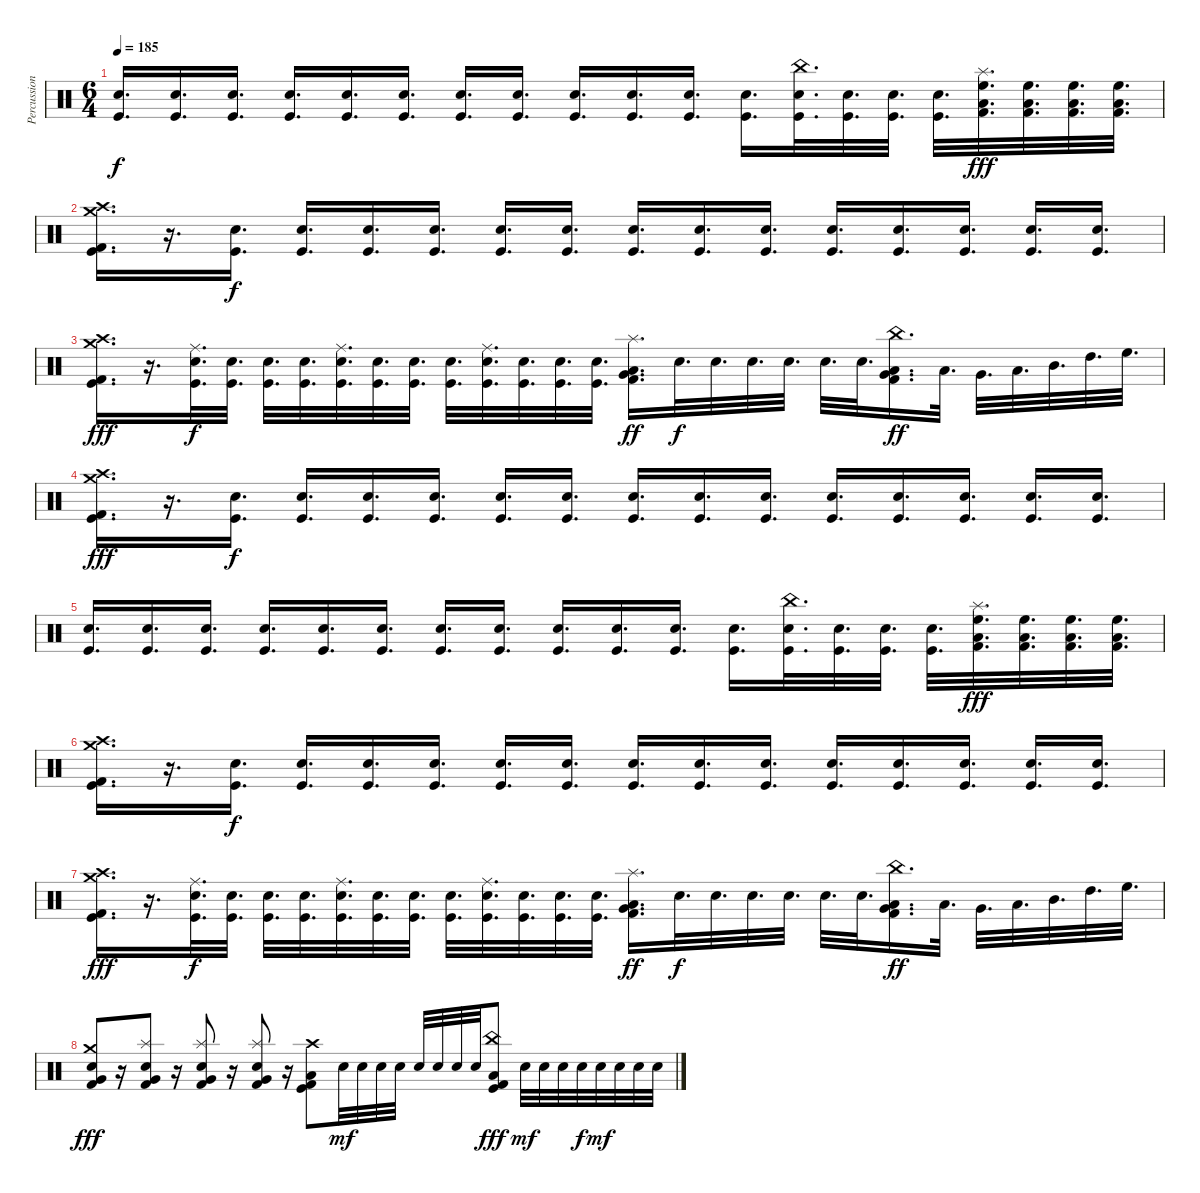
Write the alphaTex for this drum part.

\track ("Percussions" "Percussion") {instrument percussion}
\staff {score}
\articulation defaults
\ts (6 4)
\tempo 185
\clef neutral
\ks c
("Electric Snare (hit)" "Kick (hit)").16{d dy f} ("Electric Snare (hit)" "Kick (hit)").16{d} ("Electric Snare (hit)" "Kick (hit)").16{d} ("Electric Snare (hit)" "Kick (hit)").16{d} ("Electric Snare (hit)" "Kick (hit)").16{d} ("Electric Snare (hit)" "Kick (hit)").16{d} ("Electric Snare (hit)" "Kick (hit)").16{d} ("Electric Snare (hit)" "Kick (hit)").16{d} ("Electric Snare (hit)" "Kick (hit)").16{d} ("Electric Snare (hit)" "Kick (hit)").16{d} ("Electric Snare (hit)" "Kick (hit)").16{d} ("Electric Snare (hit)" "Kick (hit)").16{d} ("China (hit)" "Electric Snare (hit)" "Kick (hit)").32{d} ("Electric Snare (hit)" "Kick (hit)").32{d} ("Electric Snare (hit)" "Kick (hit)").32{d} ("Electric Snare (hit)" "Kick (hit)").32{d} ("Splash (hit)" "Low Floor Tom (hit)" "High Floor Tom (hit)" "Kick (hit) 2").32{d dy fff} ("Low Floor Tom (hit)" "High Floor Tom (hit)" "Kick (hit) 2").32{d} ("Low Floor Tom (hit)" "High Floor Tom (hit)" "Kick (hit) 2").32{d} ("Low Floor Tom (hit)" "High Floor Tom (hit)" "Kick (hit) 2").32{d} |
("Crash high (hit)" "Crash medium (hit)" "Kick (hit)" "Kick (hit) 2").16{d} r.16{d} ("Electric Snare (hit)" "Kick (hit)").16{d dy f} ("Electric Snare (hit)" "Kick (hit)").16{d} ("Electric Snare (hit)" "Kick (hit)").16{d} ("Electric Snare (hit)" "Kick (hit)").16{d} ("Electric Snare (hit)" "Kick (hit)").16{d} ("Electric Snare (hit)" "Kick (hit)").16{d} ("Electric Snare (hit)" "Kick (hit)").16{d} ("Electric Snare (hit)" "Kick (hit)").16{d} ("Electric Snare (hit)" "Kick (hit)").16{d} ("Electric Snare (hit)" "Kick (hit)").16{d} ("Electric Snare (hit)" "Kick (hit)").16{d} ("Electric Snare (hit)" "Kick (hit)").16{d} ("Electric Snare (hit)" "Kick (hit)").16{d} ("Electric Snare (hit)" "Kick (hit)").16{d} |
("Crash high (hit)" "Crash medium (hit)" "Kick (hit)" "Kick (hit) 2").16{d dy fff} r.16{d} ("Ride (middle)" "Electric Snare (hit)" "Kick (hit)").32{d dy f} ("Electric Snare (hit)" "Kick (hit)").32{d} ("Electric Snare (hit)" "Kick (hit)").32{d} ("Electric Snare (hit)" "Kick (hit)").32{d} ("Ride (middle)" "Electric Snare (hit)" "Kick (hit)").32{d} ("Electric Snare (hit)" "Kick (hit)").32{d} ("Electric Snare (hit)" "Kick (hit)").32{d} ("Electric Snare (hit)" "Kick (hit)").32{d} ("Ride (middle)" "Electric Snare (hit)" "Kick (hit)").32{d} ("Electric Snare (hit)" "Kick (hit)").32{d} ("Electric Snare (hit)" "Kick (hit)").32{d} ("Electric Snare (hit)" "Kick (hit)").32{d} ("Splash (hit)" "Low Floor Tom (hit)" "Very Low Tom (hit)" "Kick (hit) 2").16{d dy ff} "Electric Snare (hit)".32{d dy f} "Electric Snare (hit)".32{d} "Electric Snare (hit)".32{d} "Electric Snare (hit)".32{d} "Electric Snare (hit)".32{d} "Electric Snare (hit)".32{d} ("China (hit)" "Low Floor Tom (hit)" "Very Low Tom (hit)" "Kick (hit) 2").16{d dy ff} "Low Floor Tom (hit)".32{d} "Very Low Tom (hit)".32{d} "Low Tom (hit)".32{d} "Mid Tom (hit)".32{d} "High Tom (hit)".32{d} "High Floor Tom (hit)".32{d} |
("Crash high (hit)" "Crash medium (hit)" "Kick (hit)" "Kick (hit) 2").16{d dy fff} r.16{d} ("Electric Snare (hit)" "Kick (hit)").16{d dy f} ("Electric Snare (hit)" "Kick (hit)").16{d} ("Electric Snare (hit)" "Kick (hit)").16{d} ("Electric Snare (hit)" "Kick (hit)").16{d} ("Electric Snare (hit)" "Kick (hit)").16{d} ("Electric Snare (hit)" "Kick (hit)").16{d} ("Electric Snare (hit)" "Kick (hit)").16{d} ("Electric Snare (hit)" "Kick (hit)").16{d} ("Electric Snare (hit)" "Kick (hit)").16{d} ("Electric Snare (hit)" "Kick (hit)").16{d} ("Electric Snare (hit)" "Kick (hit)").16{d} ("Electric Snare (hit)" "Kick (hit)").16{d} ("Electric Snare (hit)" "Kick (hit)").16{d} ("Electric Snare (hit)" "Kick (hit)").16{d} |
("Electric Snare (hit)" "Kick (hit)").16{d} ("Electric Snare (hit)" "Kick (hit)").16{d} ("Electric Snare (hit)" "Kick (hit)").16{d} ("Electric Snare (hit)" "Kick (hit)").16{d} ("Electric Snare (hit)" "Kick (hit)").16{d} ("Electric Snare (hit)" "Kick (hit)").16{d} ("Electric Snare (hit)" "Kick (hit)").16{d} ("Electric Snare (hit)" "Kick (hit)").16{d} ("Electric Snare (hit)" "Kick (hit)").16{d} ("Electric Snare (hit)" "Kick (hit)").16{d} ("Electric Snare (hit)" "Kick (hit)").16{d} ("Electric Snare (hit)" "Kick (hit)").16{d} ("China (hit)" "Electric Snare (hit)" "Kick (hit)").32{d} ("Electric Snare (hit)" "Kick (hit)").32{d} ("Electric Snare (hit)" "Kick (hit)").32{d} ("Electric Snare (hit)" "Kick (hit)").32{d} ("Splash (hit)" "Low Floor Tom (hit)" "High Floor Tom (hit)" "Kick (hit) 2").32{d dy fff} ("Low Floor Tom (hit)" "High Floor Tom (hit)" "Kick (hit) 2").32{d} ("Low Floor Tom (hit)" "High Floor Tom (hit)" "Kick (hit) 2").32{d} ("Low Floor Tom (hit)" "High Floor Tom (hit)" "Kick (hit) 2").32{d} |
("Crash high (hit)" "Crash medium (hit)" "Kick (hit)" "Kick (hit) 2").16{d} r.16{d} ("Electric Snare (hit)" "Kick (hit)").16{d dy f} ("Electric Snare (hit)" "Kick (hit)").16{d} ("Electric Snare (hit)" "Kick (hit)").16{d} ("Electric Snare (hit)" "Kick (hit)").16{d} ("Electric Snare (hit)" "Kick (hit)").16{d} ("Electric Snare (hit)" "Kick (hit)").16{d} ("Electric Snare (hit)" "Kick (hit)").16{d} ("Electric Snare (hit)" "Kick (hit)").16{d} ("Electric Snare (hit)" "Kick (hit)").16{d} ("Electric Snare (hit)" "Kick (hit)").16{d} ("Electric Snare (hit)" "Kick (hit)").16{d} ("Electric Snare (hit)" "Kick (hit)").16{d} ("Electric Snare (hit)" "Kick (hit)").16{d} ("Electric Snare (hit)" "Kick (hit)").16{d} |
("Crash high (hit)" "Crash medium (hit)" "Kick (hit)" "Kick (hit) 2").16{d dy fff} r.16{d} ("Ride (middle)" "Electric Snare (hit)" "Kick (hit)").32{d dy f} ("Electric Snare (hit)" "Kick (hit)").32{d} ("Electric Snare (hit)" "Kick (hit)").32{d} ("Electric Snare (hit)" "Kick (hit)").32{d} ("Ride (middle)" "Electric Snare (hit)" "Kick (hit)").32{d} ("Electric Snare (hit)" "Kick (hit)").32{d} ("Electric Snare (hit)" "Kick (hit)").32{d} ("Electric Snare (hit)" "Kick (hit)").32{d} ("Ride (middle)" "Electric Snare (hit)" "Kick (hit)").32{d} ("Electric Snare (hit)" "Kick (hit)").32{d} ("Electric Snare (hit)" "Kick (hit)").32{d} ("Electric Snare (hit)" "Kick (hit)").32{d} ("Splash (hit)" "Low Floor Tom (hit)" "Very Low Tom (hit)" "Kick (hit) 2").16{d dy ff} "Electric Snare (hit)".32{d dy f} "Electric Snare (hit)".32{d} "Electric Snare (hit)".32{d} "Electric Snare (hit)".32{d} "Electric Snare (hit)".32{d} "Electric Snare (hit)".32{d} ("China (hit)" "Low Floor Tom (hit)" "Very Low Tom (hit)" "Kick (hit) 2").16{d dy ff} "Low Floor Tom (hit)".32{d} "Very Low Tom (hit)".32{d} "Low Tom (hit)".32{d} "Mid Tom (hit)".32{d} "High Tom (hit)".32{d} "High Floor Tom (hit)".32{d} |
("Crash medium (hit)" "Electric Snare (hit)" "Very Low Tom (hit)" "Kick (hit) 2").8{dy fff} r.16 ("Splash (hit)" "Electric Snare (hit)" "Very Low Tom (hit)" "Kick (hit) 2").8 r.16 ("Splash (hit)" "Electric Snare (hit)" "Very Low Tom (hit)" "Kick (hit) 2").8 r.16 ("Splash (hit)" "Electric Snare (hit)" "Very Low Tom (hit)" "Kick (hit) 2").8 r.16 ("Crash high (hit)" "Low Floor Tom (hit)" "Kick (hit)" "Kick (hit) 2").8 "Electric Snare (hit)".32{dy mf} "Electric Snare (hit)".32 "Electric Snare (hit)".32 "Electric Snare (hit)".32 "Electric Snare (hit)".32 "Electric Snare (hit)".32 "Electric Snare (hit)".32 "Electric Snare (hit)".32 ("China (hit)" "Low Floor Tom (hit)" "Kick (hit)" "Kick (hit) 2").8{dy fff} "Electric Snare (hit)".32{dy mf} "Electric Snare (hit)".32 "Electric Snare (hit)".32 "Electric Snare (hit)".32{dy f} "Electric Snare (hit)".32{dy mf} "Electric Snare (hit)".32 "Electric Snare (hit)".32 "Electric Snare (hit)".32
